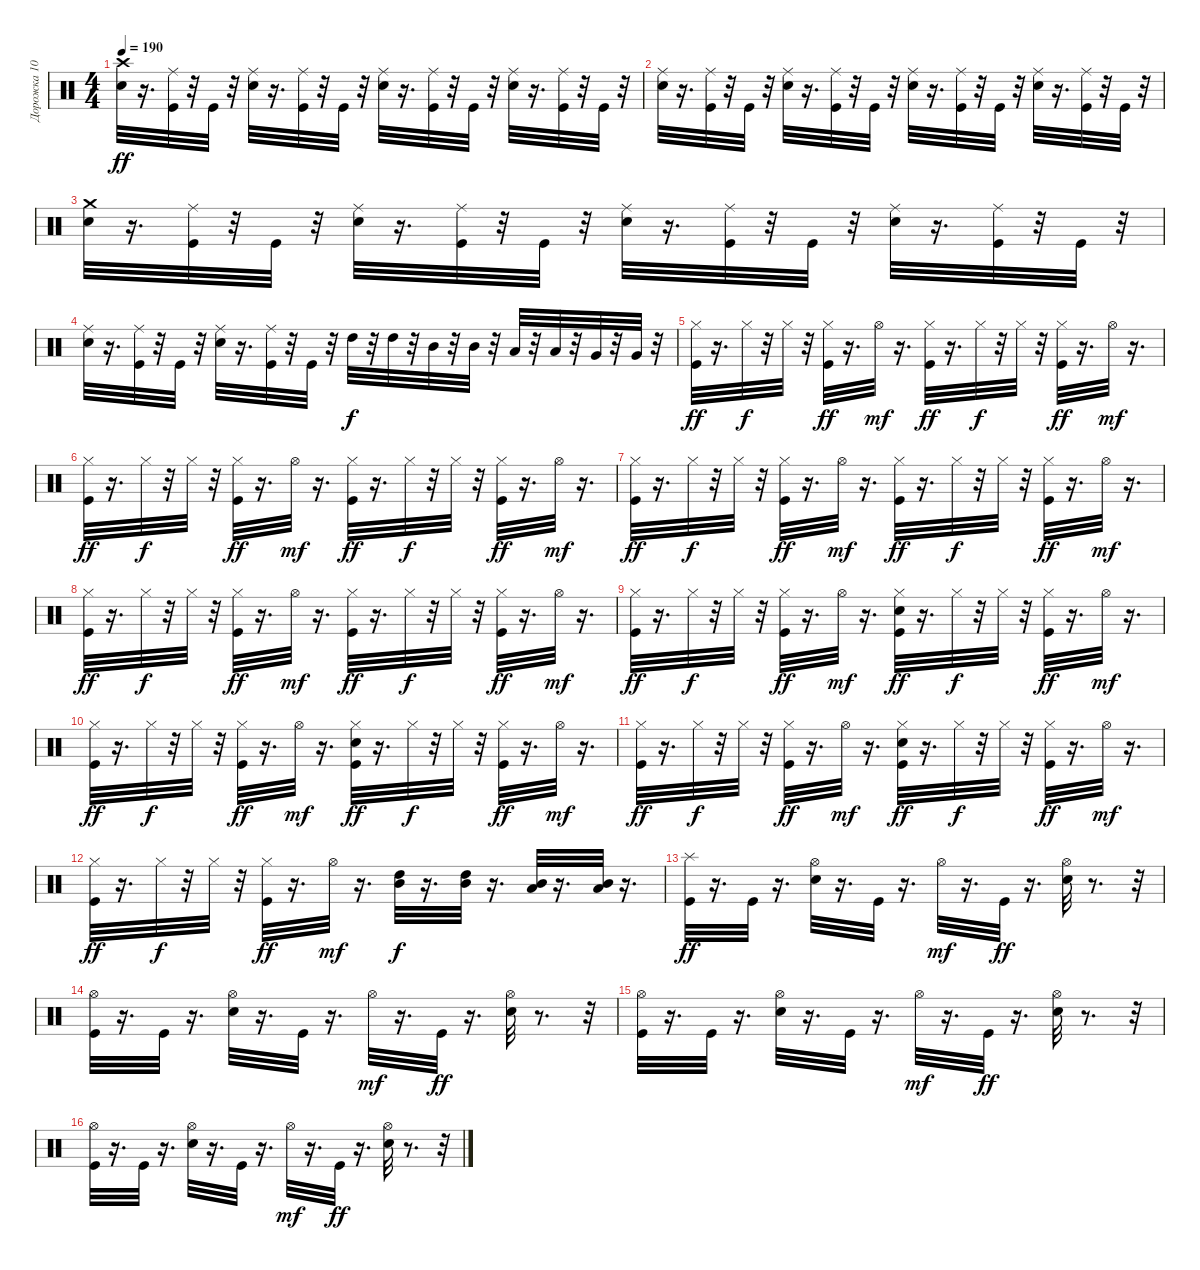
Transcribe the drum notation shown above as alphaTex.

\track ("Дорожка 10" "Дорожка 10") {instrument percussion}
\staff {score}
\articulation defaults
\ts (4 4)
\tempo 190
\clef neutral
\ks c
("Snare (hit) 2" "Crash high (hit)").32{dy ff} r.16{d} ("Ride (middle)" "Kick (hit)").32 r.32 "Kick (hit)".32 r.32 ("Ride (middle)" "Snare (hit) 2").32 r.16{d} ("Ride (middle)" "Kick (hit)").32 r.32 "Kick (hit)".32 r.32 ("Ride (middle)" "Snare (hit) 2").32 r.16{d} ("Kick (hit)" "Ride (middle)").32 r.32 "Kick (hit)".32 r.32 ("Ride (middle)" "Snare (hit) 2").32 r.16{d} ("Ride (middle)" "Kick (hit)").32 r.32 "Kick (hit)".32 r.32 |
("Snare (hit) 2" "Ride (middle)").32 r.16{d} ("Ride (middle)" "Kick (hit)").32 r.32 "Kick (hit)".32 r.32 ("Ride (middle)" "Snare (hit) 2").32 r.16{d} ("Ride (middle)" "Kick (hit)").32 r.32 "Kick (hit)".32 r.32 ("Ride (middle)" "Snare (hit) 2").32 r.16{d} ("Ride (middle)" "Kick (hit)").32 r.32 "Kick (hit)".32 r.32 ("Ride (middle)" "Snare (hit) 2").32 r.16{d} ("Ride (middle)" "Kick (hit)").32 r.32 "Kick (hit)".32 r.32 |
("Crash medium (hit)" "Snare (hit) 2").32 r.16{d} ("Ride (middle)" "Kick (hit)").32 r.32 "Kick (hit)".32 r.32 ("Ride (middle)" "Snare (hit) 2").32 r.16{d} ("Ride (middle)" "Kick (hit)").32 r.32 "Kick (hit)".32 r.32 ("Ride (middle)" "Snare (hit) 2").32 r.16{d} ("Ride (middle)" "Kick (hit)").32 r.32 "Kick (hit)".32 r.32 ("Ride (middle)" "Snare (hit) 2").32 r.16{d} ("Ride (middle)" "Kick (hit)").32 r.32 "Kick (hit)".32 r.32 |
("Ride (middle)" "Snare (hit) 2").32 r.16{d} ("Ride (middle)" "Kick (hit)").32 r.32 "Kick (hit)".32 r.32 ("Ride (middle)" "Snare (hit) 2").32 r.16{d} ("Ride (middle)" "Kick (hit)").32 r.32 "Kick (hit)".32 r.32 "High Tom (hit)".32{dy f} r.32 "High Tom (hit)".32 r.32 "Mid Tom (hit)".32 r.32 "Mid Tom (hit)".32 r.32 "Low Tom (hit)".32 r.32 "Low Tom (hit)".32 r.32 "Very Low Tom (hit)".32 r.32 "Very Low Tom (hit)".32 r.32 |
("Kick (hit)" "Hi-Hat (closed)").32{dy ff} r.16{d} "Hi-Hat (closed)".32{dy f} r.32 "Hi-Hat (closed)".32 r.32 ("Hi-Hat (closed)" "Kick (hit)").32{dy ff} r.16{d} "Hi-Hat (open)".32{dy mf} r.16{d} ("Kick (hit)" "Hi-Hat (closed)").32{dy ff} r.16{d} "Hi-Hat (closed)".32{dy f} r.32 "Hi-Hat (closed)".32 r.32 ("Kick (hit)" "Hi-Hat (closed)").32{dy ff} r.16{d} "Hi-Hat (open)".32{dy mf} r.16{d} |
("Hi-Hat (closed)" "Kick (hit)").32{dy ff} r.16{d} "Hi-Hat (closed)".32{dy f} r.32 "Hi-Hat (closed)".32 r.32 ("Kick (hit)" "Hi-Hat (closed)").32{dy ff} r.16{d} "Hi-Hat (open)".32{dy mf} r.16{d} ("Hi-Hat (closed)" "Kick (hit)").32{dy ff} r.16{d} "Hi-Hat (closed)".32{dy f} r.32 "Hi-Hat (closed)".32 r.32 ("Kick (hit)" "Hi-Hat (closed)").32{dy ff} r.16{d} "Hi-Hat (open)".32{dy mf} r.16{d} |
("Hi-Hat (closed)" "Kick (hit)").32{dy ff} r.16{d} "Hi-Hat (closed)".32{dy f} r.32 "Hi-Hat (closed)".32 r.32 ("Hi-Hat (closed)" "Kick (hit)").32{dy ff} r.16{d} "Hi-Hat (open)".32{dy mf} r.16{d} ("Hi-Hat (closed)" "Kick (hit)").32{dy ff} r.16{d} "Hi-Hat (closed)".32{dy f} r.32 "Hi-Hat (closed)".32 r.32 ("Hi-Hat (closed)" "Kick (hit)").32{dy ff} r.16{d} "Hi-Hat (open)".32{dy mf} r.16{d} |
("Hi-Hat (closed)" "Kick (hit)").32{dy ff} r.16{d} "Hi-Hat (closed)".32{dy f} r.32 "Hi-Hat (closed)".32 r.32 ("Kick (hit)" "Hi-Hat (closed)").32{dy ff} r.16{d} "Hi-Hat (open)".32{dy mf} r.16{d} ("Hi-Hat (closed)" "Kick (hit)").32{dy ff} r.16{d} "Hi-Hat (closed)".32{dy f} r.32 "Hi-Hat (closed)".32 r.32 ("Kick (hit)" "Hi-Hat (closed)").32{dy ff} r.16{d} "Hi-Hat (open)".32{dy mf} r.16{d} |
("Kick (hit)" "Hi-Hat (closed)").32{dy ff} r.16{d} "Hi-Hat (closed)".32{dy f} r.32 "Hi-Hat (closed)".32 r.32 ("Hi-Hat (closed)" "Kick (hit)").32{dy ff} r.16{d} "Hi-Hat (open)".32{dy mf} r.16{d} ("Kick (hit)" "Hi-Hat (closed)" "Snare (hit) 2").32{dy ff} r.16{d} "Hi-Hat (closed)".32{dy f} r.32 "Hi-Hat (closed)".32 r.32 ("Kick (hit)" "Hi-Hat (closed)").32{dy ff} r.16{d} "Hi-Hat (open)".32{dy mf} r.16{d} |
("Hi-Hat (closed)" "Kick (hit)").32{dy ff} r.16{d} "Hi-Hat (closed)".32{dy f} r.32 "Hi-Hat (closed)".32 r.32 ("Kick (hit)" "Hi-Hat (closed)").32{dy ff} r.16{d} "Hi-Hat (open)".32{dy mf} r.16{d} ("Snare (hit) 2" "Hi-Hat (closed)" "Kick (hit)").32{dy ff} r.16{d} "Hi-Hat (closed)".32{dy f} r.32 "Hi-Hat (closed)".32 r.32 ("Kick (hit)" "Hi-Hat (closed)").32{dy ff} r.16{d} "Hi-Hat (open)".32{dy mf} r.16{d} |
("Hi-Hat (closed)" "Kick (hit)").32{dy ff} r.16{d} "Hi-Hat (closed)".32{dy f} r.32 "Hi-Hat (closed)".32 r.32 ("Hi-Hat (closed)" "Kick (hit)").32{dy ff} r.16{d} "Hi-Hat (open)".32{dy mf} r.16{d} ("Snare (hit) 2" "Hi-Hat (closed)" "Kick (hit)").32{dy ff} r.16{d} "Hi-Hat (closed)".32{dy f} r.32 "Hi-Hat (closed)".32 r.32 ("Hi-Hat (closed)" "Kick (hit)").32{dy ff} r.16{d} "Hi-Hat (open)".32{dy mf} r.16{d} |
("Hi-Hat (closed)" "Kick (hit)").32{dy ff} r.16{d} "Hi-Hat (closed)".32{dy f} r.32 "Hi-Hat (closed)".32 r.32 ("Kick (hit)" "Hi-Hat (closed)").32{dy ff} r.16{d} "Hi-Hat (open)".32{dy mf} r.16{d} ("High Tom (hit)" "Mid Tom (hit)").32{dy f} r.16{d} ("Mid Tom (hit)" "High Tom (hit)").32 r.16{d} ("Low Tom (hit)" "Mid Tom (hit)").32 r.16{d} ("Low Tom (hit)" "Mid Tom (hit)").32 r.16{d} |
("Splash (hit)" "Kick (hit)").32{dy ff} r.16{d} "Kick (hit)".32 r.16{d} ("Hi-Hat (open)" "Snare (hit) 2").32 r.16{d} "Kick (hit)".32 r.16{d} "Hi-Hat (open)".32{dy mf} r.16{d} "Kick (hit)".32{dy ff} r.16{d} ("Hi-Hat (open)" "Snare (hit) 2").32 r.8{d} r.32 |
("Hi-Hat (open)" "Kick (hit)").32 r.16{d} "Kick (hit)".32 r.16{d} ("Hi-Hat (open)" "Snare (hit) 2").32 r.16{d} "Kick (hit)".32 r.16{d} "Hi-Hat (open)".32{dy mf} r.16{d} "Kick (hit)".32{dy ff} r.16{d} ("Hi-Hat (open)" "Snare (hit) 2").32 r.8{d} r.32 |
("Hi-Hat (open)" "Kick (hit)").32 r.16{d} "Kick (hit)".32 r.16{d} ("Hi-Hat (open)" "Snare (hit) 2").32 r.16{d} "Kick (hit)".32 r.16{d} "Hi-Hat (open)".32{dy mf} r.16{d} "Kick (hit)".32{dy ff} r.16{d} ("Hi-Hat (open)" "Snare (hit) 2").32 r.8{d} r.32 |
("Hi-Hat (open)" "Kick (hit)").32 r.16{d} "Kick (hit)".32 r.16{d} ("Hi-Hat (open)" "Snare (hit) 2").32 r.16{d} "Kick (hit)".32 r.16{d} "Hi-Hat (open)".32{dy mf} r.16{d} "Kick (hit)".32{dy ff} r.16{d} ("Hi-Hat (open)" "Snare (hit) 2").32 r.8{d} r.32
